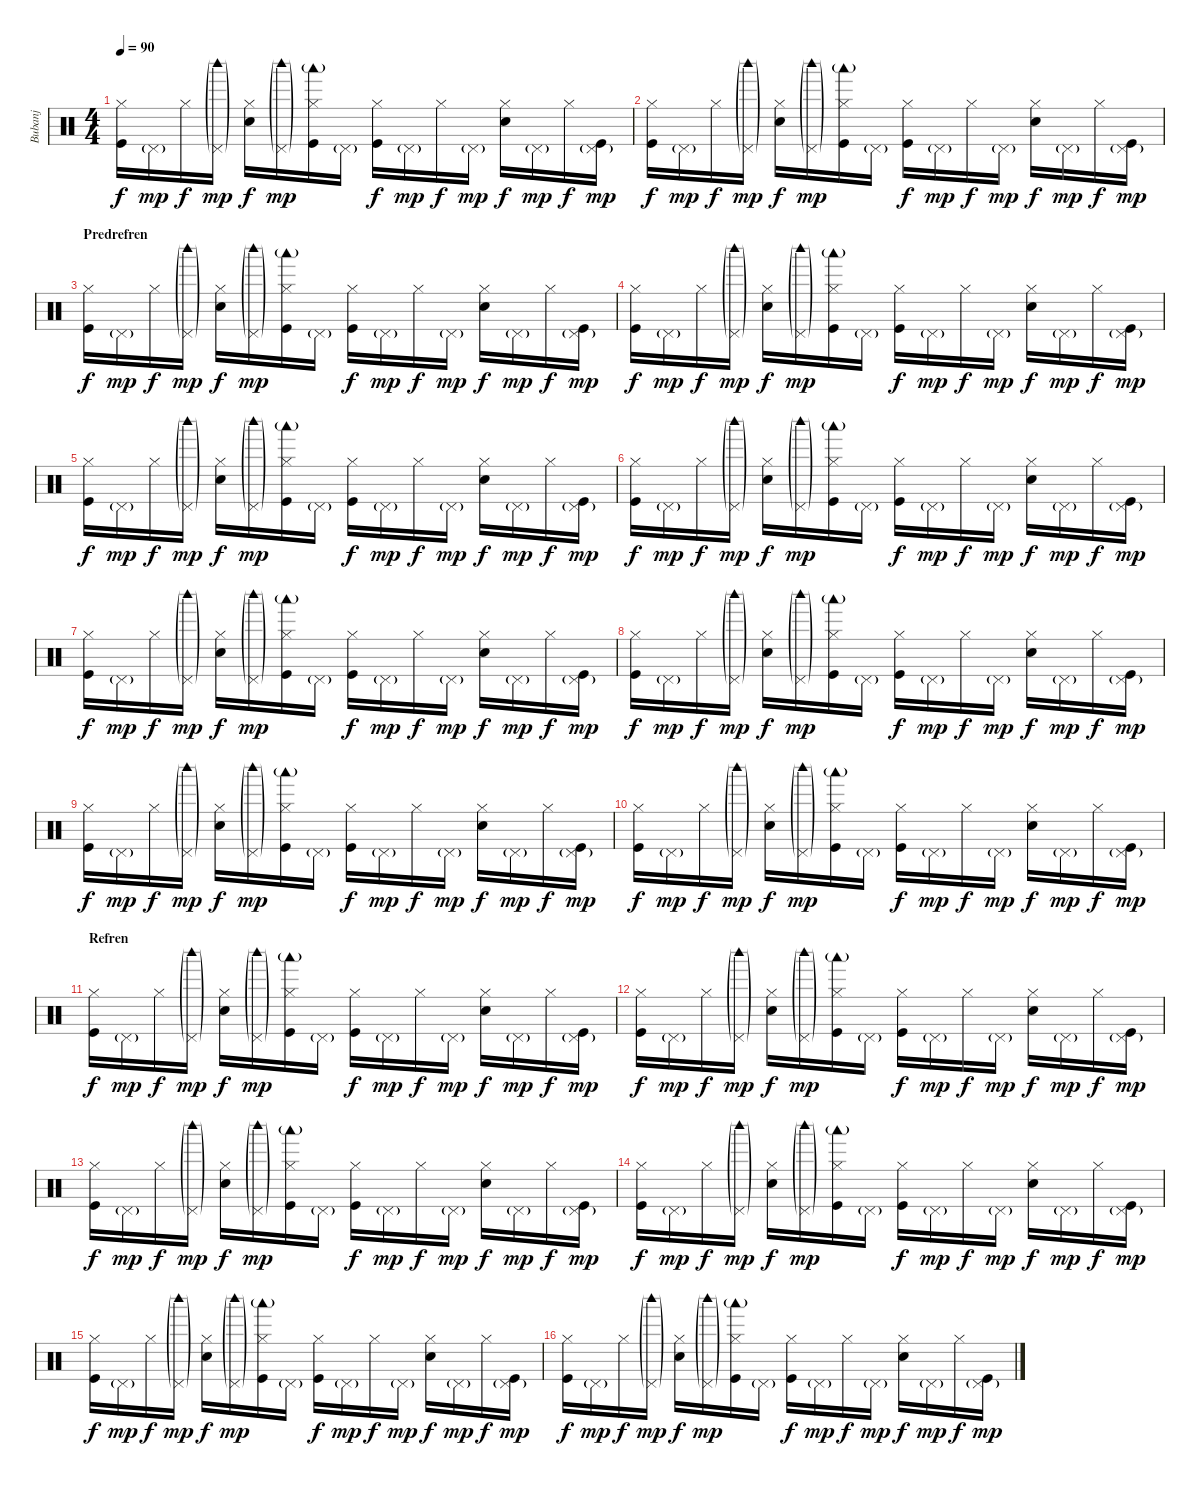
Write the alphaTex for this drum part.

\track ("Bubanj" "Bubanj") {instrument percussion}
\staff {score}
\articulation defaults
\ts (4 4)
\tempo 90
\clef neutral
\ks c
("Hi-Hat (closed)" "Kick (hit)").16{dy f} "Pedal Hi-Hat (hit)"{g}.16{dy mp} "Hi-Hat (closed)".16{dy f} ("Pedal Hi-Hat (hit)"{g} "Woodblock high (hit)"{g}).16{dy mp} ("Hi-Hat (closed)" "Snare (hit) 2").16{dy f} ("Pedal Hi-Hat (hit)"{g} "Woodblock high (hit)"{g}).16{dy mp} ("Hi-Hat (closed)" "Woodblock low (hit)"{g} "Kick (hit)").16 "Pedal Hi-Hat (hit)"{g}.16 ("Hi-Hat (closed)" "Kick (hit)").16{dy f} "Pedal Hi-Hat (hit)"{g}.16{dy mp} "Hi-Hat (closed)".16{dy f} "Pedal Hi-Hat (hit)"{g}.16{dy mp} ("Hi-Hat (closed)" "Snare (hit) 2").16{dy f} "Pedal Hi-Hat (hit)"{g}.16{dy mp} "Hi-Hat (closed)".16{dy f} ("Pedal Hi-Hat (hit)"{g} "Kick (hit)").16{dy mp} |
("Hi-Hat (closed)" "Kick (hit)").16{dy f} "Pedal Hi-Hat (hit)"{g}.16{dy mp} "Hi-Hat (closed)".16{dy f} ("Pedal Hi-Hat (hit)"{g} "Woodblock high (hit)"{g}).16{dy mp} ("Hi-Hat (closed)" "Snare (hit) 2").16{dy f} ("Pedal Hi-Hat (hit)"{g} "Woodblock high (hit)"{g}).16{dy mp} ("Hi-Hat (closed)" "Woodblock low (hit)"{g} "Kick (hit)").16 "Pedal Hi-Hat (hit)"{g}.16 ("Hi-Hat (closed)" "Kick (hit)").16{dy f} "Pedal Hi-Hat (hit)"{g}.16{dy mp} "Hi-Hat (closed)".16{dy f} "Pedal Hi-Hat (hit)"{g}.16{dy mp} ("Hi-Hat (closed)" "Snare (hit) 2").16{dy f} "Pedal Hi-Hat (hit)"{g}.16{dy mp} "Hi-Hat (closed)".16{dy f} ("Pedal Hi-Hat (hit)"{g} "Kick (hit)").16{dy mp} |
\section ("" "Predrefren")
("Hi-Hat (closed)" "Kick (hit)").16{dy f} "Pedal Hi-Hat (hit)"{g}.16{dy mp} "Hi-Hat (closed)".16{dy f} ("Pedal Hi-Hat (hit)"{g} "Woodblock high (hit)"{g}).16{dy mp} ("Hi-Hat (closed)" "Snare (hit) 2").16{dy f} ("Pedal Hi-Hat (hit)"{g} "Woodblock high (hit)"{g}).16{dy mp} ("Hi-Hat (closed)" "Woodblock low (hit)"{g} "Kick (hit)").16 "Pedal Hi-Hat (hit)"{g}.16 ("Hi-Hat (closed)" "Kick (hit)").16{dy f} "Pedal Hi-Hat (hit)"{g}.16{dy mp} "Hi-Hat (closed)".16{dy f} "Pedal Hi-Hat (hit)"{g}.16{dy mp} ("Hi-Hat (closed)" "Snare (hit) 2").16{dy f} "Pedal Hi-Hat (hit)"{g}.16{dy mp} "Hi-Hat (closed)".16{dy f} ("Pedal Hi-Hat (hit)"{g} "Kick (hit)").16{dy mp} |
("Hi-Hat (closed)" "Kick (hit)").16{dy f} "Pedal Hi-Hat (hit)"{g}.16{dy mp} "Hi-Hat (closed)".16{dy f} ("Pedal Hi-Hat (hit)"{g} "Woodblock high (hit)"{g}).16{dy mp} ("Hi-Hat (closed)" "Snare (hit) 2").16{dy f} ("Pedal Hi-Hat (hit)"{g} "Woodblock high (hit)"{g}).16{dy mp} ("Hi-Hat (closed)" "Woodblock low (hit)"{g} "Kick (hit)").16 "Pedal Hi-Hat (hit)"{g}.16 ("Hi-Hat (closed)" "Kick (hit)").16{dy f} "Pedal Hi-Hat (hit)"{g}.16{dy mp} "Hi-Hat (closed)".16{dy f} "Pedal Hi-Hat (hit)"{g}.16{dy mp} ("Hi-Hat (closed)" "Snare (hit) 2").16{dy f} "Pedal Hi-Hat (hit)"{g}.16{dy mp} "Hi-Hat (closed)".16{dy f} ("Pedal Hi-Hat (hit)"{g} "Kick (hit)").16{dy mp} |
("Hi-Hat (closed)" "Kick (hit)").16{dy f} "Pedal Hi-Hat (hit)"{g}.16{dy mp} "Hi-Hat (closed)".16{dy f} ("Pedal Hi-Hat (hit)"{g} "Woodblock high (hit)"{g}).16{dy mp} ("Hi-Hat (closed)" "Snare (hit) 2").16{dy f} ("Pedal Hi-Hat (hit)"{g} "Woodblock high (hit)"{g}).16{dy mp} ("Hi-Hat (closed)" "Woodblock low (hit)"{g} "Kick (hit)").16 "Pedal Hi-Hat (hit)"{g}.16 ("Hi-Hat (closed)" "Kick (hit)").16{dy f} "Pedal Hi-Hat (hit)"{g}.16{dy mp} "Hi-Hat (closed)".16{dy f} "Pedal Hi-Hat (hit)"{g}.16{dy mp} ("Hi-Hat (closed)" "Snare (hit) 2").16{dy f} "Pedal Hi-Hat (hit)"{g}.16{dy mp} "Hi-Hat (closed)".16{dy f} ("Pedal Hi-Hat (hit)"{g} "Kick (hit)").16{dy mp} |
("Hi-Hat (closed)" "Kick (hit)").16{dy f} "Pedal Hi-Hat (hit)"{g}.16{dy mp} "Hi-Hat (closed)".16{dy f} ("Pedal Hi-Hat (hit)"{g} "Woodblock high (hit)"{g}).16{dy mp} ("Hi-Hat (closed)" "Snare (hit) 2").16{dy f} ("Pedal Hi-Hat (hit)"{g} "Woodblock high (hit)"{g}).16{dy mp} ("Hi-Hat (closed)" "Woodblock low (hit)"{g} "Kick (hit)").16 "Pedal Hi-Hat (hit)"{g}.16 ("Hi-Hat (closed)" "Kick (hit)").16{dy f} "Pedal Hi-Hat (hit)"{g}.16{dy mp} "Hi-Hat (closed)".16{dy f} "Pedal Hi-Hat (hit)"{g}.16{dy mp} ("Hi-Hat (closed)" "Snare (hit) 2").16{dy f} "Pedal Hi-Hat (hit)"{g}.16{dy mp} "Hi-Hat (closed)".16{dy f} ("Pedal Hi-Hat (hit)"{g} "Kick (hit)").16{dy mp} |
("Hi-Hat (closed)" "Kick (hit)").16{dy f} "Pedal Hi-Hat (hit)"{g}.16{dy mp} "Hi-Hat (closed)".16{dy f} ("Pedal Hi-Hat (hit)"{g} "Woodblock high (hit)"{g}).16{dy mp} ("Hi-Hat (closed)" "Snare (hit) 2").16{dy f} ("Pedal Hi-Hat (hit)"{g} "Woodblock high (hit)"{g}).16{dy mp} ("Hi-Hat (closed)" "Woodblock low (hit)"{g} "Kick (hit)").16 "Pedal Hi-Hat (hit)"{g}.16 ("Hi-Hat (closed)" "Kick (hit)").16{dy f} "Pedal Hi-Hat (hit)"{g}.16{dy mp} "Hi-Hat (closed)".16{dy f} "Pedal Hi-Hat (hit)"{g}.16{dy mp} ("Hi-Hat (closed)" "Snare (hit) 2").16{dy f} "Pedal Hi-Hat (hit)"{g}.16{dy mp} "Hi-Hat (closed)".16{dy f} ("Pedal Hi-Hat (hit)"{g} "Kick (hit)").16{dy mp} |
("Hi-Hat (closed)" "Kick (hit)").16{dy f} "Pedal Hi-Hat (hit)"{g}.16{dy mp} "Hi-Hat (closed)".16{dy f} ("Pedal Hi-Hat (hit)"{g} "Woodblock high (hit)"{g}).16{dy mp} ("Hi-Hat (closed)" "Snare (hit) 2").16{dy f} ("Pedal Hi-Hat (hit)"{g} "Woodblock high (hit)"{g}).16{dy mp} ("Hi-Hat (closed)" "Woodblock low (hit)"{g} "Kick (hit)").16 "Pedal Hi-Hat (hit)"{g}.16 ("Hi-Hat (closed)" "Kick (hit)").16{dy f} "Pedal Hi-Hat (hit)"{g}.16{dy mp} "Hi-Hat (closed)".16{dy f} "Pedal Hi-Hat (hit)"{g}.16{dy mp} ("Hi-Hat (closed)" "Snare (hit) 2").16{dy f} "Pedal Hi-Hat (hit)"{g}.16{dy mp} "Hi-Hat (closed)".16{dy f} ("Pedal Hi-Hat (hit)"{g} "Kick (hit)").16{dy mp} |
("Hi-Hat (closed)" "Kick (hit)").16{dy f} "Pedal Hi-Hat (hit)"{g}.16{dy mp} "Hi-Hat (closed)".16{dy f} ("Pedal Hi-Hat (hit)"{g} "Woodblock high (hit)"{g}).16{dy mp} ("Hi-Hat (closed)" "Snare (hit) 2").16{dy f} ("Pedal Hi-Hat (hit)"{g} "Woodblock high (hit)"{g}).16{dy mp} ("Hi-Hat (closed)" "Woodblock low (hit)"{g} "Kick (hit)").16 "Pedal Hi-Hat (hit)"{g}.16 ("Hi-Hat (closed)" "Kick (hit)").16{dy f} "Pedal Hi-Hat (hit)"{g}.16{dy mp} "Hi-Hat (closed)".16{dy f} "Pedal Hi-Hat (hit)"{g}.16{dy mp} ("Hi-Hat (closed)" "Snare (hit) 2").16{dy f} "Pedal Hi-Hat (hit)"{g}.16{dy mp} "Hi-Hat (closed)".16{dy f} ("Pedal Hi-Hat (hit)"{g} "Kick (hit)").16{dy mp} |
("Hi-Hat (closed)" "Kick (hit)").16{dy f} "Pedal Hi-Hat (hit)"{g}.16{dy mp} "Hi-Hat (closed)".16{dy f} ("Pedal Hi-Hat (hit)"{g} "Woodblock high (hit)"{g}).16{dy mp} ("Hi-Hat (closed)" "Snare (hit) 2").16{dy f} ("Pedal Hi-Hat (hit)"{g} "Woodblock high (hit)"{g}).16{dy mp} ("Hi-Hat (closed)" "Woodblock low (hit)"{g} "Kick (hit)").16 "Pedal Hi-Hat (hit)"{g}.16 ("Hi-Hat (closed)" "Kick (hit)").16{dy f} "Pedal Hi-Hat (hit)"{g}.16{dy mp} "Hi-Hat (closed)".16{dy f} "Pedal Hi-Hat (hit)"{g}.16{dy mp} ("Hi-Hat (closed)" "Snare (hit) 2").16{dy f} "Pedal Hi-Hat (hit)"{g}.16{dy mp} "Hi-Hat (closed)".16{dy f} ("Pedal Hi-Hat (hit)"{g} "Kick (hit)").16{dy mp} |
\section ("" "Refren")
("Hi-Hat (closed)" "Kick (hit)").16{dy f} "Pedal Hi-Hat (hit)"{g}.16{dy mp} "Hi-Hat (closed)".16{dy f} ("Pedal Hi-Hat (hit)"{g} "Woodblock high (hit)"{g}).16{dy mp} ("Hi-Hat (closed)" "Snare (hit) 2").16{dy f} ("Pedal Hi-Hat (hit)"{g} "Woodblock high (hit)"{g}).16{dy mp} ("Hi-Hat (closed)" "Woodblock low (hit)"{g} "Kick (hit)").16 "Pedal Hi-Hat (hit)"{g}.16 ("Hi-Hat (closed)" "Kick (hit)").16{dy f} "Pedal Hi-Hat (hit)"{g}.16{dy mp} "Hi-Hat (closed)".16{dy f} "Pedal Hi-Hat (hit)"{g}.16{dy mp} ("Hi-Hat (closed)" "Snare (hit) 2").16{dy f} "Pedal Hi-Hat (hit)"{g}.16{dy mp} "Hi-Hat (closed)".16{dy f} ("Pedal Hi-Hat (hit)"{g} "Kick (hit)").16{dy mp} |
("Hi-Hat (closed)" "Kick (hit)").16{dy f} "Pedal Hi-Hat (hit)"{g}.16{dy mp} "Hi-Hat (closed)".16{dy f} ("Pedal Hi-Hat (hit)"{g} "Woodblock high (hit)"{g}).16{dy mp} ("Hi-Hat (closed)" "Snare (hit) 2").16{dy f} ("Pedal Hi-Hat (hit)"{g} "Woodblock high (hit)"{g}).16{dy mp} ("Hi-Hat (closed)" "Woodblock low (hit)"{g} "Kick (hit)").16 "Pedal Hi-Hat (hit)"{g}.16 ("Hi-Hat (closed)" "Kick (hit)").16{dy f} "Pedal Hi-Hat (hit)"{g}.16{dy mp} "Hi-Hat (closed)".16{dy f} "Pedal Hi-Hat (hit)"{g}.16{dy mp} ("Hi-Hat (closed)" "Snare (hit) 2").16{dy f} "Pedal Hi-Hat (hit)"{g}.16{dy mp} "Hi-Hat (closed)".16{dy f} ("Pedal Hi-Hat (hit)"{g} "Kick (hit)").16{dy mp} |
("Hi-Hat (closed)" "Kick (hit)").16{dy f} "Pedal Hi-Hat (hit)"{g}.16{dy mp} "Hi-Hat (closed)".16{dy f} ("Pedal Hi-Hat (hit)"{g} "Woodblock high (hit)"{g}).16{dy mp} ("Hi-Hat (closed)" "Snare (hit) 2").16{dy f} ("Pedal Hi-Hat (hit)"{g} "Woodblock high (hit)"{g}).16{dy mp} ("Hi-Hat (closed)" "Woodblock low (hit)"{g} "Kick (hit)").16 "Pedal Hi-Hat (hit)"{g}.16 ("Hi-Hat (closed)" "Kick (hit)").16{dy f} "Pedal Hi-Hat (hit)"{g}.16{dy mp} "Hi-Hat (closed)".16{dy f} "Pedal Hi-Hat (hit)"{g}.16{dy mp} ("Hi-Hat (closed)" "Snare (hit) 2").16{dy f} "Pedal Hi-Hat (hit)"{g}.16{dy mp} "Hi-Hat (closed)".16{dy f} ("Pedal Hi-Hat (hit)"{g} "Kick (hit)").16{dy mp} |
("Hi-Hat (closed)" "Kick (hit)").16{dy f} "Pedal Hi-Hat (hit)"{g}.16{dy mp} "Hi-Hat (closed)".16{dy f} ("Pedal Hi-Hat (hit)"{g} "Woodblock high (hit)"{g}).16{dy mp} ("Hi-Hat (closed)" "Snare (hit) 2").16{dy f} ("Pedal Hi-Hat (hit)"{g} "Woodblock high (hit)"{g}).16{dy mp} ("Hi-Hat (closed)" "Woodblock low (hit)"{g} "Kick (hit)").16 "Pedal Hi-Hat (hit)"{g}.16 ("Hi-Hat (closed)" "Kick (hit)").16{dy f} "Pedal Hi-Hat (hit)"{g}.16{dy mp} "Hi-Hat (closed)".16{dy f} "Pedal Hi-Hat (hit)"{g}.16{dy mp} ("Hi-Hat (closed)" "Snare (hit) 2").16{dy f} "Pedal Hi-Hat (hit)"{g}.16{dy mp} "Hi-Hat (closed)".16{dy f} ("Pedal Hi-Hat (hit)"{g} "Kick (hit)").16{dy mp} |
("Hi-Hat (closed)" "Kick (hit)").16{dy f} "Pedal Hi-Hat (hit)"{g}.16{dy mp} "Hi-Hat (closed)".16{dy f} ("Pedal Hi-Hat (hit)"{g} "Woodblock high (hit)"{g}).16{dy mp} ("Hi-Hat (closed)" "Snare (hit) 2").16{dy f} ("Pedal Hi-Hat (hit)"{g} "Woodblock high (hit)"{g}).16{dy mp} ("Hi-Hat (closed)" "Woodblock low (hit)"{g} "Kick (hit)").16 "Pedal Hi-Hat (hit)"{g}.16 ("Hi-Hat (closed)" "Kick (hit)").16{dy f} "Pedal Hi-Hat (hit)"{g}.16{dy mp} "Hi-Hat (closed)".16{dy f} "Pedal Hi-Hat (hit)"{g}.16{dy mp} ("Hi-Hat (closed)" "Snare (hit) 2").16{dy f} "Pedal Hi-Hat (hit)"{g}.16{dy mp} "Hi-Hat (closed)".16{dy f} ("Pedal Hi-Hat (hit)"{g} "Kick (hit)").16{dy mp} |
("Hi-Hat (closed)" "Kick (hit)").16{dy f} "Pedal Hi-Hat (hit)"{g}.16{dy mp} "Hi-Hat (closed)".16{dy f} ("Pedal Hi-Hat (hit)"{g} "Woodblock high (hit)"{g}).16{dy mp} ("Hi-Hat (closed)" "Snare (hit) 2").16{dy f} ("Pedal Hi-Hat (hit)"{g} "Woodblock high (hit)"{g}).16{dy mp} ("Hi-Hat (closed)" "Woodblock low (hit)"{g} "Kick (hit)").16 "Pedal Hi-Hat (hit)"{g}.16 ("Hi-Hat (closed)" "Kick (hit)").16{dy f} "Pedal Hi-Hat (hit)"{g}.16{dy mp} "Hi-Hat (closed)".16{dy f} "Pedal Hi-Hat (hit)"{g}.16{dy mp} ("Hi-Hat (closed)" "Snare (hit) 2").16{dy f} "Pedal Hi-Hat (hit)"{g}.16{dy mp} "Hi-Hat (closed)".16{dy f} ("Pedal Hi-Hat (hit)"{g} "Kick (hit)").16{dy mp}
